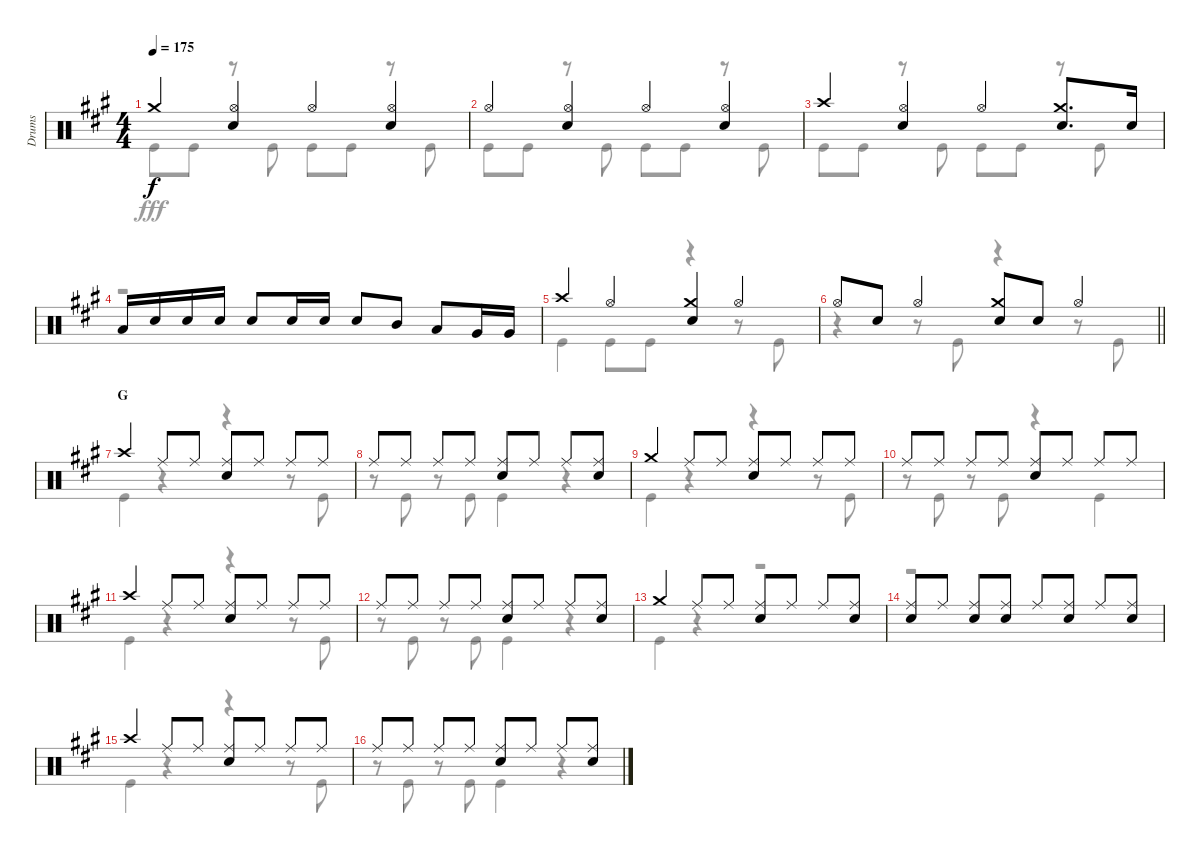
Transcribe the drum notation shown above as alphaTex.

\track ("Drums" "Drums") {instrument percussion}
\staff {score}
\articulation defaults
\voice
\ts (4 4)
\tempo 175
\clef neutral
\ks a "Crash medium (hit)".4{dy f}
("Hi-Hat (open)" "Snare (hit) 2").4 "Hi-Hat (open)".4 ("Hi-Hat (open)" "Snare (hit) 2").4 |
"Hi-Hat (open)".4 ("Hi-Hat (open)" "Snare (hit) 2").4 "Hi-Hat (open)".4 ("Hi-Hat (open)" "Snare (hit) 2").4 |
"Crash high (hit)".4 ("Hi-Hat (open)" "Snare (hit) 2").4 "Hi-Hat (open)".4 ("Crash medium (hit)" "Snare (hit) 2").8{d} "Snare (hit) 2".16 |
"Low Tom (hit)".16 "Snare (hit) 2".16 "Snare (hit) 2".16 "Snare (hit) 2".16 "Snare (hit) 2".8 "Snare (hit) 2".16 "Snare (hit) 2".16 "Snare (hit) 2".8 "Mid Tom (hit)".8 "Low Tom (hit)".8 "Very Low Tom (hit)".16 "Very Low Tom (hit)".16 |
"Crash high (hit)".4 "Hi-Hat (open)".4 ("Crash medium (hit)" "Snare (hit) 2").4 "Hi-Hat (open)".4 |
\barLineRight lightlight "Hi-Hat (open)".8 "Snare (hit) 2".8 "Hi-Hat (open)".4
("Crash medium (hit)" "Snare (hit) 2").8 "Snare (hit) 2".8 "Hi-Hat (open)".4 |
\section ("" "G")
"Crash high (hit)".4 "Ride (middle)".8 "Ride (middle)".8 ("Ride (middle)" "Snare (hit) 2").8 "Ride (middle)".8 "Ride (middle)".8 "Ride (middle)".8 |
"Ride (middle)".8 "Ride (middle)".8 "Ride (middle)".8 "Ride (middle)".8 ("Ride (middle)" "Snare (hit) 2").8 "Ride (middle)".8 "Ride (middle)".8 ("Ride (middle)" "Snare (hit) 2").8 |
"Crash medium (hit)".4 "Ride (middle)".8 "Ride (middle)".8 ("Ride (middle)" "Snare (hit) 2").8 "Ride (middle)".8 "Ride (middle)".8 "Ride (middle)".8 |
"Ride (middle)".8 "Ride (middle)".8 "Ride (middle)".8 "Ride (middle)".8 ("Ride (middle)" "Snare (hit) 2").8 "Ride (middle)".8 "Ride (middle)".8 "Ride (middle)".8 |
"Crash high (hit)".4 "Ride (middle)".8 "Ride (middle)".8 ("Ride (middle)" "Snare (hit) 2").8 "Ride (middle)".8 "Ride (middle)".8 "Ride (middle)".8 |
"Ride (middle)".8 "Ride (middle)".8 "Ride (middle)".8 "Ride (middle)".8 ("Ride (middle)" "Snare (hit) 2").8 "Ride (middle)".8 "Ride (middle)".8 ("Ride (middle)" "Snare (hit) 2").8 |
"Crash medium (hit)".4 "Ride (middle)".8 "Ride (middle)".8 ("Ride (middle)" "Snare (hit) 2").8 "Ride (middle)".8 "Ride (middle)".8 ("Ride (middle)" "Snare (hit) 2").8 |
("Ride (middle)" "Snare (hit) 2").8 "Ride (middle)".8 ("Ride (middle)" "Snare (hit) 2").8 ("Ride (middle)" "Snare (hit) 2").8 "Ride (middle)".8 ("Ride (middle)" "Snare (hit) 2").8 "Ride (middle)".8 ("Ride (middle)" "Snare (hit) 2").8 |
"Crash high (hit)".4 "Ride (middle)".8 "Ride (middle)".8 ("Ride (middle)" "Snare (hit) 2").8 "Ride (middle)".8 "Ride (middle)".8 "Ride (middle)".8 |
"Ride (middle)".8 "Ride (middle)".8 "Ride (middle)".8 "Ride (middle)".8 ("Ride (middle)" "Snare (hit) 2").8 "Ride (middle)".8 "Ride (middle)".8 ("Ride (middle)" "Snare (hit) 2").8
\voice
\clef neutral
\ottava regular
\simile none
\ks a "Kick (hit)".8{dy fff} "Kick (hit)".8
r.8 "Kick (hit)".8 "Kick (hit)".8 "Kick (hit)".8 r.8 "Kick (hit)".8 |
"Kick (hit)".8 "Kick (hit)".8 r.8 "Kick (hit)".8 "Kick (hit)".8 "Kick (hit)".8 r.8 "Kick (hit)".8 |
"Kick (hit)".8 "Kick (hit)".8 r.8 "Kick (hit)".8 "Kick (hit)".8 "Kick (hit)".8 r.8 "Kick (hit)".8 |
r.1 |
"Kick (hit)".4 "Kick (hit)".8 "Kick (hit)".8 r.4 r.8 "Kick (hit)".8 |
\barLineRight lightlight
r.4 r.8 "Kick (hit)".8 r.4 r.8 "Kick (hit)".8 |
"Kick (hit)".4 r.4 r.4 r.8 "Kick (hit)".8 |
r.8 "Kick (hit)".8 r.8 "Kick (hit)".8 "Kick (hit)".4 r.4 |
"Kick (hit)".4 r.4 r.4 r.8 "Kick (hit)".8 |
r.8 "Kick (hit)".8 r.8 "Kick (hit)".8 r.4 "Kick (hit)".4 |
"Kick (hit)".4 r.4 r.4 r.8 "Kick (hit)".8 |
r.8 "Kick (hit)".8 r.8 "Kick (hit)".8 "Kick (hit)".4 r.4 |
"Kick (hit)".4 r.4 r.2 |
r.1 |
"Kick (hit)".4 r.4 r.4 r.8 "Kick (hit)".8 |
r.8 "Kick (hit)".8 r.8 "Kick (hit)".8 "Kick (hit)".4 r.4
